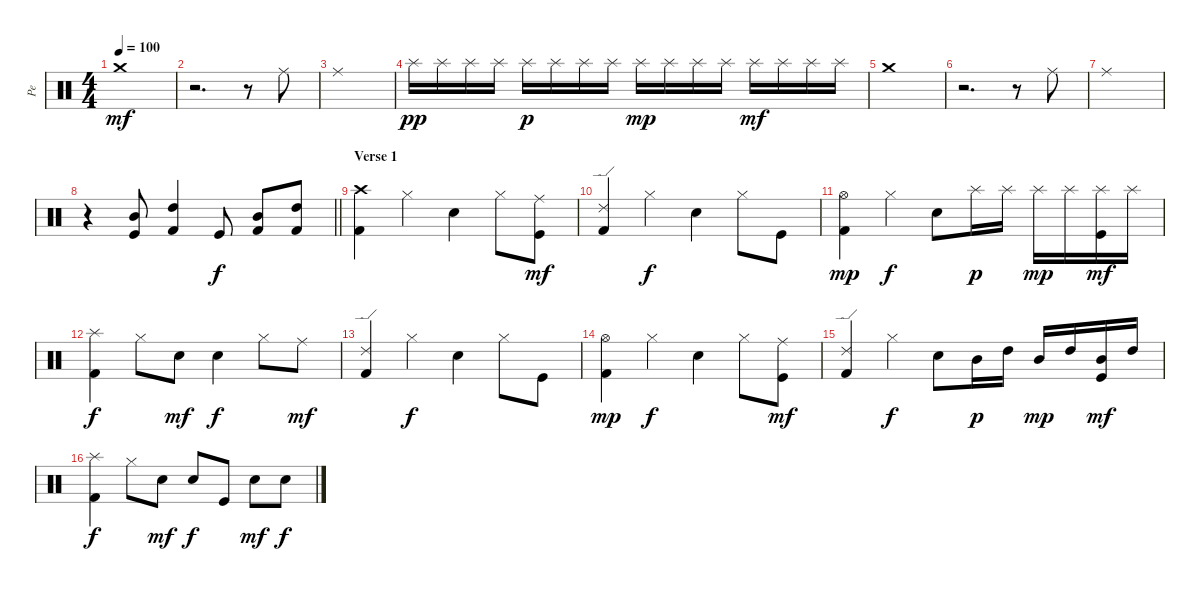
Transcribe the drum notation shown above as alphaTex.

\track ("Pe" "Pe") {instrument percussion}
\staff {score}
\articulation defaults
\ts (4 4)
\tempo 100
\clef neutral
\ks c "Crash medium (hit)".1{dy mf}
|
r.2{d} r.8 "Ride (middle)".8 |
"Ride (middle)".1 |
"Splash (hit)".16{dy pp} "Splash (hit)".16 "Splash (hit)".16 "Splash (hit)".16 "Splash (hit)".16{dy p} "Splash (hit)".16 "Splash (hit)".16 "Splash (hit)".16 "Splash (hit)".16{dy mp} "Splash (hit)".16 "Splash (hit)".16 "Splash (hit)".16 "Splash (hit)".16{dy mf} "Splash (hit)".16 "Splash (hit)".16 "Splash (hit)".16 |
"Crash medium (hit)".1 |
r.2{d} r.8 "Ride (middle)".8 |
"Ride (middle)".1 |
\barLineRight lightlight
r.4 ("Kick (hit)" "Mid Tom (hit)").8 ("Kick (hit) 2" "High Tom (hit)").4 "Kick (hit)".8{dy f} ("Kick (hit) 2" "Mid Tom (hit)").8 ("Kick (hit) 2" "High Tom (hit)").8 |
\section ("" "Verse 1")
("Kick (hit) 2" "Crash high (hit)").4 "Hi-Hat (closed)".4 "Electric Snare (hit)".4 "Hi-Hat (closed)".8 ("Kick (hit)" "Ride (middle)").8{dy mf} |
("Kick (hit) 2" "Ride (edge) 2").4 "Hi-Hat (closed)".4{dy f} "Electric Snare (hit)".4 "Hi-Hat (closed)".8 "Kick (hit)".8 |
("Kick (hit) 2" "Hi-Hat (open)").4{dy mp} "Hi-Hat (closed)".4{dy f} "Electric Snare (hit)".8 "Splash (hit)".16{dy p} "Splash (hit)".16 "Splash (hit)".16{dy mp} "Splash (hit)".16 ("Kick (hit)" "Splash (hit)").16{dy mf} "Splash (hit)".16 |
("Kick (hit) 2" "Splash (hit)").4{dy f} "Hi-Hat (closed)".8 "Electric Snare (hit)".8{dy mf} "Electric Snare (hit)".4{dy f} "Hi-Hat (closed)".8 "Ride (middle)".8{dy mf} |
("Kick (hit) 2" "Ride (edge) 2").4 "Hi-Hat (closed)".4{dy f} "Electric Snare (hit)".4 "Hi-Hat (closed)".8 "Kick (hit)".8 |
("Kick (hit) 2" "Hi-Hat (open)").4{dy mp} "Hi-Hat (closed)".4{dy f} "Electric Snare (hit)".4 "Hi-Hat (closed)".8 ("Kick (hit)" "Ride (middle)").8{dy mf} |
("Kick (hit) 2" "Ride (edge) 2").4 "Hi-Hat (closed)".4{dy f} "Electric Snare (hit)".8 "Mid Tom (hit)".16{dy p} "High Tom (hit)".16 "Mid Tom (hit)".16{dy mp} "High Tom (hit)".16 ("Kick (hit)" "Mid Tom (hit)").16{dy mf} "High Tom (hit)".16 |
("Kick (hit) 2" "Splash (hit)").4{dy f} "Hi-Hat (closed)".8 "Electric Snare (hit)".8{dy mf} "Electric Snare (hit)".8{dy f} "Kick (hit)".8 "Electric Snare (hit)".8{dy mf} "Electric Snare (hit)".8{dy f}
